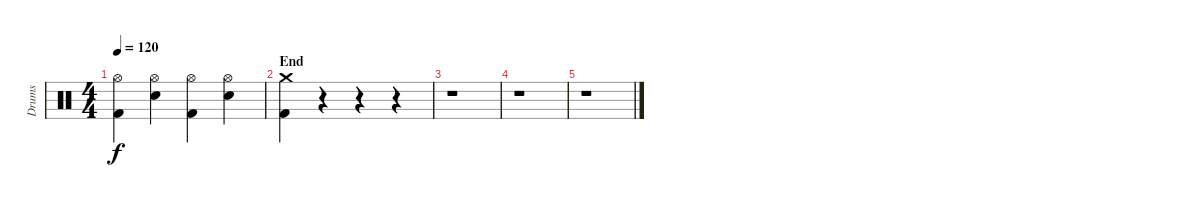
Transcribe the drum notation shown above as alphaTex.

\track ("Drums" "Drums") {instrument percussion}
\staff {score}
\articulation defaults
\ts (4 4)
\tempo 120
\clef neutral
\ks c
("Hi-Hat (open)" "Kick (hit) 2").4{dy f} ("Hi-Hat (open)" "Electric Snare (hit)").4 ("Hi-Hat (open)" "Kick (hit) 2").4 ("Hi-Hat (open)" "Electric Snare (hit)").4 |
\section ("" "End")
("Crash medium (hit)" "Kick (hit) 2").4 r.4 r.4 r.4 |
r.1 |
r.1 |
r.1
